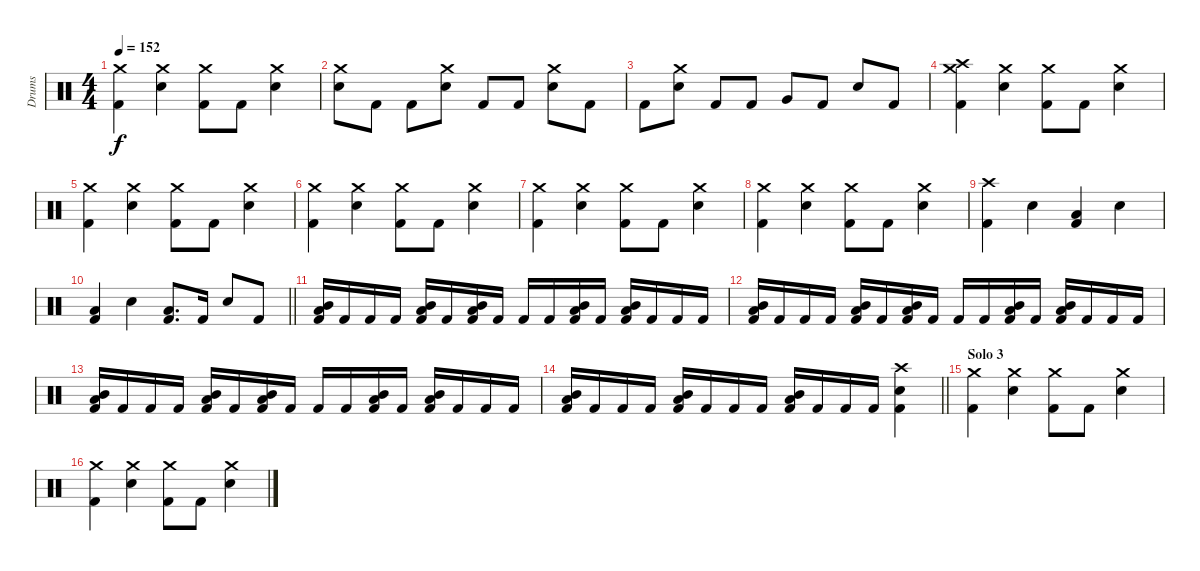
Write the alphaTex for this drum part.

\track ("Drums" "Drums") {instrument percussion}
\staff {score}
\articulation defaults
\ts (4 4)
\tempo 152
\clef neutral
\ks c
("Crash medium (hit)" "Kick (hit) 2").4{dy f} ("Crash medium (hit)" "Snare (hit) 2").4 ("Crash medium (hit)" "Kick (hit) 2").8 "Kick (hit) 2".8 ("Crash medium (hit)" "Snare (hit) 2").4 |
("Crash medium (hit)" "Snare (hit) 2").8 "Kick (hit) 2".8 "Kick (hit) 2".8 ("Crash medium (hit)" "Snare (hit) 2").8 "Kick (hit) 2".8 "Kick (hit) 2".8 ("Crash medium (hit)" "Snare (hit) 2").8 "Kick (hit) 2".8 |
"Kick (hit) 2".8 ("Crash medium (hit)" "Snare (hit) 2").8 "Kick (hit) 2".8 "Kick (hit) 2".8 "Very Low Tom (hit)".8 "Kick (hit) 2".8 "Snare (hit) 2".8 "Kick (hit) 2".8 |
("Crash high (hit)" "Crash medium (hit)" "Kick (hit) 2").4 ("Crash medium (hit)" "Snare (hit) 2").4 ("Crash medium (hit)" "Kick (hit) 2").8 "Kick (hit) 2".8 ("Crash medium (hit)" "Snare (hit) 2").4 |
("Crash medium (hit)" "Kick (hit) 2").4 ("Crash medium (hit)" "Snare (hit) 2").4 ("Crash medium (hit)" "Kick (hit) 2").8 "Kick (hit) 2".8 ("Crash medium (hit)" "Snare (hit) 2").4 |
("Crash medium (hit)" "Kick (hit) 2").4 ("Crash medium (hit)" "Snare (hit) 2").4 ("Crash medium (hit)" "Kick (hit) 2").8 "Kick (hit) 2".8 ("Crash medium (hit)" "Snare (hit) 2").4 |
("Crash medium (hit)" "Kick (hit) 2").4 ("Crash medium (hit)" "Snare (hit) 2").4 ("Crash medium (hit)" "Kick (hit) 2").8 "Kick (hit) 2".8 ("Crash medium (hit)" "Snare (hit) 2").4 |
("Crash medium (hit)" "Kick (hit) 2").4 ("Crash medium (hit)" "Snare (hit) 2").4 ("Crash medium (hit)" "Kick (hit) 2").8 "Kick (hit) 2".8 ("Crash medium (hit)" "Snare (hit) 2").4 |
("Crash high (hit)" "Kick (hit) 2").4 "Snare (hit) 2".4 ("Low Floor Tom (hit)" "Kick (hit) 2").4 "Snare (hit) 2".4 |
\barLineRight lightlight
("Low Floor Tom (hit)" "Kick (hit) 2").4 "Snare (hit) 2".4 ("Low Floor Tom (hit)" "Kick (hit) 2").8{d} "Kick (hit) 2".16 "Snare (hit) 2".8 "Kick (hit) 2".8 |
("Mid Tom (hit)" "Low Floor Tom (hit)" "Kick (hit) 2").16 "Kick (hit) 2".16 "Kick (hit) 2".16 "Kick (hit) 2".16 ("Mid Tom (hit)" "Low Floor Tom (hit)" "Kick (hit) 2").16 "Kick (hit) 2".16 ("Mid Tom (hit)" "Low Floor Tom (hit)" "Kick (hit) 2").16 "Kick (hit) 2".16 "Kick (hit) 2".16 "Kick (hit) 2".16 ("Mid Tom (hit)" "Low Floor Tom (hit)" "Kick (hit) 2").16 "Kick (hit) 2".16 ("Mid Tom (hit)" "Low Floor Tom (hit)" "Kick (hit) 2").16 "Kick (hit) 2".16 "Kick (hit) 2".16 "Kick (hit) 2".16 |
("Mid Tom (hit)" "Low Floor Tom (hit)" "Kick (hit) 2").16 "Kick (hit) 2".16 "Kick (hit) 2".16 "Kick (hit) 2".16 ("Mid Tom (hit)" "Low Floor Tom (hit)" "Kick (hit) 2").16 "Kick (hit) 2".16 ("Mid Tom (hit)" "Low Floor Tom (hit)" "Kick (hit) 2").16 "Kick (hit) 2".16 "Kick (hit) 2".16 "Kick (hit) 2".16 ("Mid Tom (hit)" "Low Floor Tom (hit)" "Kick (hit) 2").16 "Kick (hit) 2".16 ("Mid Tom (hit)" "Low Floor Tom (hit)" "Kick (hit) 2").16 "Kick (hit) 2".16 "Kick (hit) 2".16 "Kick (hit) 2".16 |
("Mid Tom (hit)" "Low Floor Tom (hit)" "Kick (hit) 2").16 "Kick (hit) 2".16 "Kick (hit) 2".16 "Kick (hit) 2".16 ("Mid Tom (hit)" "Low Floor Tom (hit)" "Kick (hit) 2").16 "Kick (hit) 2".16 ("Mid Tom (hit)" "Low Floor Tom (hit)" "Kick (hit) 2").16 "Kick (hit) 2".16 "Kick (hit) 2".16 "Kick (hit) 2".16 ("Mid Tom (hit)" "Low Floor Tom (hit)" "Kick (hit) 2").16 "Kick (hit) 2".16 ("Mid Tom (hit)" "Low Floor Tom (hit)" "Kick (hit) 2").16 "Kick (hit) 2".16 "Kick (hit) 2".16 "Kick (hit) 2".16 |
\barLineRight lightlight
("Mid Tom (hit)" "Low Floor Tom (hit)" "Kick (hit) 2").16 "Kick (hit) 2".16 "Kick (hit) 2".16 "Kick (hit) 2".16 ("Mid Tom (hit)" "Low Floor Tom (hit)" "Kick (hit) 2").16 "Kick (hit) 2".16 "Kick (hit) 2".16 "Kick (hit) 2".16 ("Mid Tom (hit)" "Low Floor Tom (hit)" "Kick (hit) 2").16 "Kick (hit) 2".16 "Kick (hit) 2".16 "Kick (hit) 2".16 ("Crash high (hit)" "Snare (hit) 2" "Kick (hit) 2").4 |
\section ("" "Solo 3")
("Crash medium (hit)" "Kick (hit) 2").4 ("Crash medium (hit)" "Snare (hit) 2").4 ("Crash medium (hit)" "Kick (hit) 2").8 "Kick (hit) 2".8 ("Crash medium (hit)" "Snare (hit) 2").4 |
("Crash medium (hit)" "Kick (hit) 2").4 ("Crash medium (hit)" "Snare (hit) 2").4 ("Crash medium (hit)" "Kick (hit) 2").8 "Kick (hit) 2".8 ("Crash medium (hit)" "Snare (hit) 2").4
